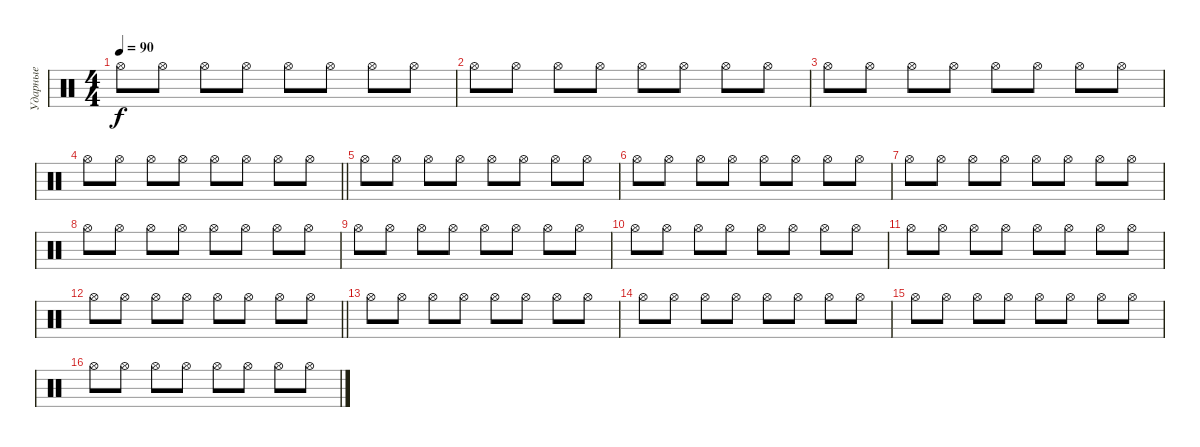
\track ("Ударные" "Ударные") {instrument percussion}
\staff {score}
\articulation defaults
\ts (4 4)
\tempo 90
\clef neutral
\ks c "Hi-Hat (open)".8{dy f} "Hi-Hat (open)".8 "Hi-Hat (open)".8 "Hi-Hat (open)".8 "Hi-Hat (open)".8 "Hi-Hat (open)".8 "Hi-Hat (open)".8 "Hi-Hat (open)".8
|
"Hi-Hat (open)".8 "Hi-Hat (open)".8 "Hi-Hat (open)".8 "Hi-Hat (open)".8 "Hi-Hat (open)".8 "Hi-Hat (open)".8 "Hi-Hat (open)".8 "Hi-Hat (open)".8 |
"Hi-Hat (open)".8 "Hi-Hat (open)".8 "Hi-Hat (open)".8 "Hi-Hat (open)".8 "Hi-Hat (open)".8 "Hi-Hat (open)".8 "Hi-Hat (open)".8 "Hi-Hat (open)".8 |
\barLineRight lightlight "Hi-Hat (open)".8 "Hi-Hat (open)".8 "Hi-Hat (open)".8 "Hi-Hat (open)".8 "Hi-Hat (open)".8 "Hi-Hat (open)".8 "Hi-Hat (open)".8 "Hi-Hat (open)".8
|
"Hi-Hat (open)".8 "Hi-Hat (open)".8 "Hi-Hat (open)".8 "Hi-Hat (open)".8 "Hi-Hat (open)".8 "Hi-Hat (open)".8 "Hi-Hat (open)".8 "Hi-Hat (open)".8 |
"Hi-Hat (open)".8 "Hi-Hat (open)".8 "Hi-Hat (open)".8 "Hi-Hat (open)".8 "Hi-Hat (open)".8 "Hi-Hat (open)".8 "Hi-Hat (open)".8 "Hi-Hat (open)".8 |
"Hi-Hat (open)".8 "Hi-Hat (open)".8 "Hi-Hat (open)".8 "Hi-Hat (open)".8 "Hi-Hat (open)".8 "Hi-Hat (open)".8 "Hi-Hat (open)".8 "Hi-Hat (open)".8 |
"Hi-Hat (open)".8 "Hi-Hat (open)".8 "Hi-Hat (open)".8 "Hi-Hat (open)".8 "Hi-Hat (open)".8 "Hi-Hat (open)".8 "Hi-Hat (open)".8 "Hi-Hat (open)".8 |
"Hi-Hat (open)".8 "Hi-Hat (open)".8 "Hi-Hat (open)".8 "Hi-Hat (open)".8 "Hi-Hat (open)".8 "Hi-Hat (open)".8 "Hi-Hat (open)".8 "Hi-Hat (open)".8 |
"Hi-Hat (open)".8 "Hi-Hat (open)".8 "Hi-Hat (open)".8 "Hi-Hat (open)".8 "Hi-Hat (open)".8 "Hi-Hat (open)".8 "Hi-Hat (open)".8 "Hi-Hat (open)".8 |
"Hi-Hat (open)".8 "Hi-Hat (open)".8 "Hi-Hat (open)".8 "Hi-Hat (open)".8 "Hi-Hat (open)".8 "Hi-Hat (open)".8 "Hi-Hat (open)".8 "Hi-Hat (open)".8 |
\barLineRight lightlight "Hi-Hat (open)".8 "Hi-Hat (open)".8 "Hi-Hat (open)".8 "Hi-Hat (open)".8 "Hi-Hat (open)".8 "Hi-Hat (open)".8 "Hi-Hat (open)".8 "Hi-Hat (open)".8
|
"Hi-Hat (open)".8 "Hi-Hat (open)".8 "Hi-Hat (open)".8 "Hi-Hat (open)".8 "Hi-Hat (open)".8 "Hi-Hat (open)".8 "Hi-Hat (open)".8 "Hi-Hat (open)".8 |
"Hi-Hat (open)".8 "Hi-Hat (open)".8 "Hi-Hat (open)".8 "Hi-Hat (open)".8 "Hi-Hat (open)".8 "Hi-Hat (open)".8 "Hi-Hat (open)".8 "Hi-Hat (open)".8 |
"Hi-Hat (open)".8 "Hi-Hat (open)".8 "Hi-Hat (open)".8 "Hi-Hat (open)".8 "Hi-Hat (open)".8 "Hi-Hat (open)".8 "Hi-Hat (open)".8 "Hi-Hat (open)".8 |
"Hi-Hat (open)".8 "Hi-Hat (open)".8 "Hi-Hat (open)".8 "Hi-Hat (open)".8 "Hi-Hat (open)".8 "Hi-Hat (open)".8 "Hi-Hat (open)".8 "Hi-Hat (open)".8
